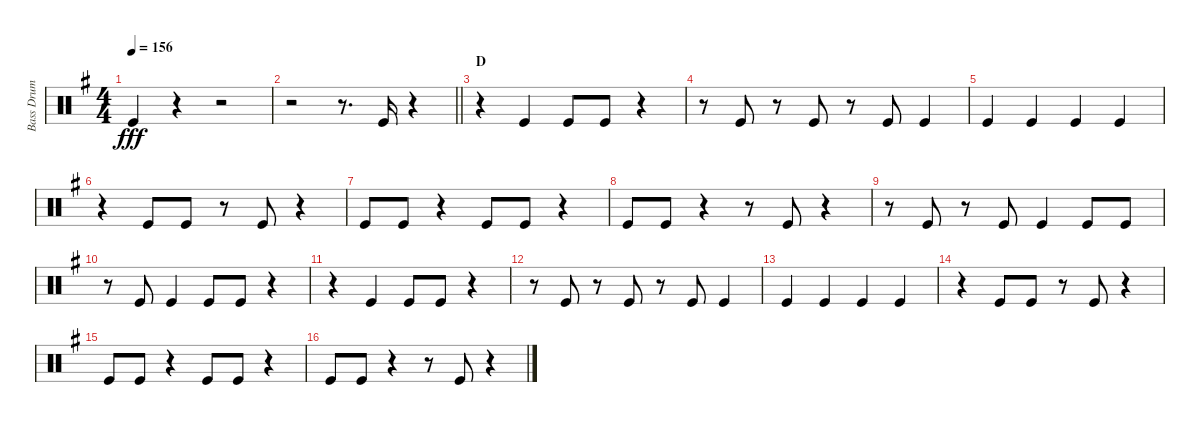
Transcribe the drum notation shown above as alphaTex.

\track ("Bass Drum" "Bass Drum") {instrument percussion}
\staff {score}
\articulation defaults
\ts (4 4)
\tempo 156
\clef neutral
\ks g "Kick (hit)".4{dy fff}
r.4 r.2 |
\barLineRight lightlight
r.2 r.8{d} "Kick (hit)".16 r.4 |
\section ("" "D")
r.4 "Kick (hit)".4 "Kick (hit)".8 "Kick (hit)".8 r.4 |
r.8 "Kick (hit)".8 r.8 "Kick (hit)".8 r.8 "Kick (hit)".8 "Kick (hit)".4 |
"Kick (hit)".4 "Kick (hit)".4 "Kick (hit)".4 "Kick (hit)".4 |
r.4 "Kick (hit)".8 "Kick (hit)".8 r.8 "Kick (hit)".8 r.4 |
"Kick (hit)".8 "Kick (hit)".8 r.4 "Kick (hit)".8 "Kick (hit)".8 r.4 |
"Kick (hit)".8 "Kick (hit)".8 r.4 r.8 "Kick (hit)".8 r.4 |
r.8 "Kick (hit)".8 r.8 "Kick (hit)".8 "Kick (hit)".4 "Kick (hit)".8 "Kick (hit)".8 |
r.8 "Kick (hit)".8 "Kick (hit)".4 "Kick (hit)".8 "Kick (hit)".8 r.4 |
r.4 "Kick (hit)".4 "Kick (hit)".8 "Kick (hit)".8 r.4 |
r.8 "Kick (hit)".8 r.8 "Kick (hit)".8 r.8 "Kick (hit)".8 "Kick (hit)".4 |
"Kick (hit)".4 "Kick (hit)".4 "Kick (hit)".4 "Kick (hit)".4 |
r.4 "Kick (hit)".8 "Kick (hit)".8 r.8 "Kick (hit)".8 r.4 |
"Kick (hit)".8 "Kick (hit)".8 r.4 "Kick (hit)".8 "Kick (hit)".8 r.4 |
"Kick (hit)".8 "Kick (hit)".8 r.4 r.8 "Kick (hit)".8 r.4
